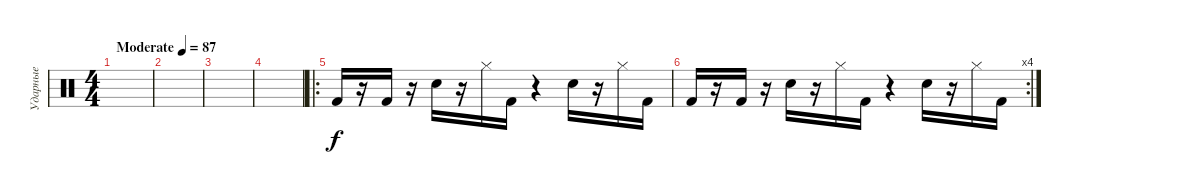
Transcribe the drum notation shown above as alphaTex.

\track ("Ударные" "Ударные") {instrument percussion}
\staff {score}
\articulation defaults
\ts (4 4)
\tempo (87 "Moderate")
\clef neutral
\ks c
|
|
|
|
\ro "Kick (hit) 2".16
r.16 "Kick (hit) 2".16 r.16 "Snare (hit) 2".16 r.16 "Hi-Hat (closed)".16 "Kick (hit) 2".16 r.4 "Snare (hit) 2".16 r.16 "Hi-Hat (closed)".16 "Kick (hit) 2".16 |
\rc 4 "Kick (hit) 2".16
r.16 "Kick (hit) 2".16 r.16 "Snare (hit) 2".16 r.16 "Hi-Hat (closed)".16 "Kick (hit) 2".16 r.4 "Snare (hit) 2".16 r.16 "Hi-Hat (closed)".16 "Kick (hit) 2".16
